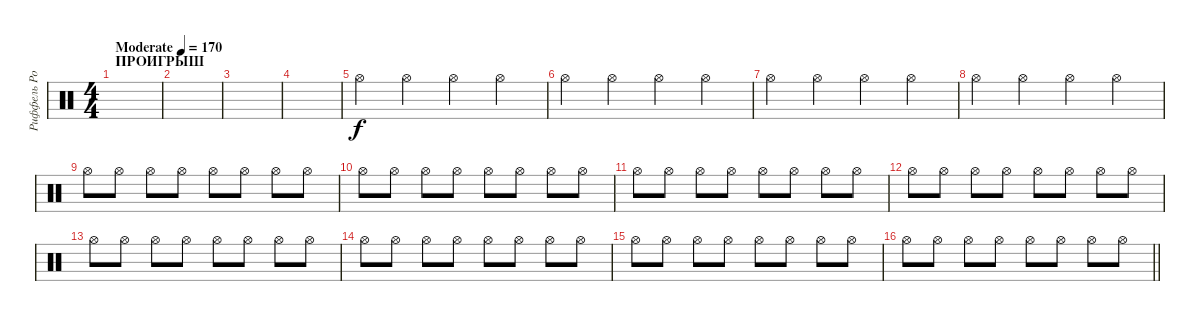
\track ("Риффель Роман(хэты)" "Риффель Ро") {instrument percussion}
\staff {score}
\articulation defaults
\ts (4 4)
\section ("" "ПРОИГРЫШ ")
\tempo (170 "Moderate")
\clef neutral
\ks c
|
|
|
|
"Hi-Hat (open)".4 "Hi-Hat (open)".4 "Hi-Hat (open)".4 "Hi-Hat (open)".4 |
"Hi-Hat (open)".4 "Hi-Hat (open)".4 "Hi-Hat (open)".4 "Hi-Hat (open)".4 |
"Hi-Hat (open)".4 "Hi-Hat (open)".4 "Hi-Hat (open)".4 "Hi-Hat (open)".4 |
"Hi-Hat (open)".4 "Hi-Hat (open)".4 "Hi-Hat (open)".4 "Hi-Hat (open)".4 |
"Hi-Hat (open)".8 "Hi-Hat (open)".8 "Hi-Hat (open)".8 "Hi-Hat (open)".8 "Hi-Hat (open)".8 "Hi-Hat (open)".8 "Hi-Hat (open)".8 "Hi-Hat (open)".8 |
"Hi-Hat (open)".8 "Hi-Hat (open)".8 "Hi-Hat (open)".8 "Hi-Hat (open)".8 "Hi-Hat (open)".8 "Hi-Hat (open)".8 "Hi-Hat (open)".8 "Hi-Hat (open)".8 |
"Hi-Hat (open)".8 "Hi-Hat (open)".8 "Hi-Hat (open)".8 "Hi-Hat (open)".8 "Hi-Hat (open)".8 "Hi-Hat (open)".8 "Hi-Hat (open)".8 "Hi-Hat (open)".8 |
"Hi-Hat (open)".8 "Hi-Hat (open)".8 "Hi-Hat (open)".8 "Hi-Hat (open)".8 "Hi-Hat (open)".8 "Hi-Hat (open)".8 "Hi-Hat (open)".8 "Hi-Hat (open)".8 |
"Hi-Hat (open)".8 "Hi-Hat (open)".8 "Hi-Hat (open)".8 "Hi-Hat (open)".8 "Hi-Hat (open)".8 "Hi-Hat (open)".8 "Hi-Hat (open)".8 "Hi-Hat (open)".8 |
"Hi-Hat (open)".8 "Hi-Hat (open)".8 "Hi-Hat (open)".8 "Hi-Hat (open)".8 "Hi-Hat (open)".8 "Hi-Hat (open)".8 "Hi-Hat (open)".8 "Hi-Hat (open)".8 |
"Hi-Hat (open)".8 "Hi-Hat (open)".8 "Hi-Hat (open)".8 "Hi-Hat (open)".8 "Hi-Hat (open)".8 "Hi-Hat (open)".8 "Hi-Hat (open)".8 "Hi-Hat (open)".8 |
\barLineRight lightlight "Hi-Hat (open)".8 "Hi-Hat (open)".8 "Hi-Hat (open)".8 "Hi-Hat (open)".8 "Hi-Hat (open)".8 "Hi-Hat (open)".8 "Hi-Hat (open)".8 "Hi-Hat (open)".8
